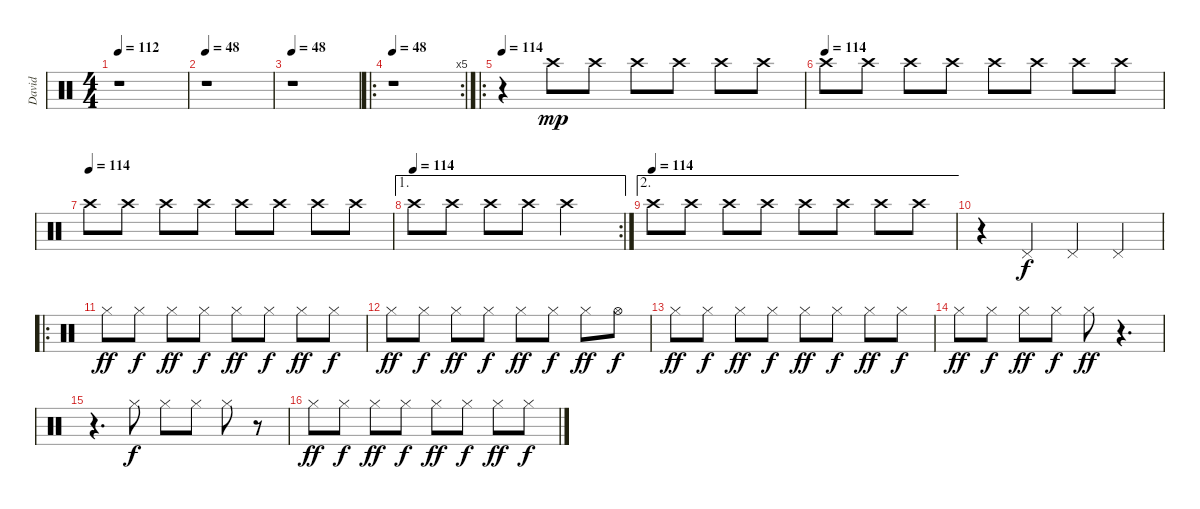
\track ("David" "David") {instrument percussion}
\staff {score}
\articulation defaults
\ts (4 4)
\tempo 112
\tempo 48
\tempo 112
\clef neutral
\ks c
r.1{dy mp} |
\tempo 48
r.1 |
\tempo 48
r.1 |
\ro
\rc 5
\tempo 48
r.1 |
\ro
\tempo 114
r.4 "Crash high (hit)".8 "Crash high (hit)".8 "Crash high (hit)".8 "Crash high (hit)".8 "Crash high (hit)".8 "Crash high (hit)".8 |
\tempo (114)
"Crash high (hit)".8 "Crash high (hit)".8 "Crash high (hit)".8 "Crash high (hit)".8 "Crash high (hit)".8 "Crash high (hit)".8 "Crash high (hit)".8 "Crash high (hit)".8 |
\tempo (114)
"Crash high (hit)".8 "Crash high (hit)".8 "Crash high (hit)".8 "Crash high (hit)".8 "Crash high (hit)".8 "Crash high (hit)".8 "Crash high (hit)".8 "Crash high (hit)".8 |
\ae 1
\rc 2
\tempo (114)
"Crash high (hit)".8 "Crash high (hit)".8 "Crash high (hit)".8 "Crash high (hit)".8 "Crash high (hit)".2 |
\ae 2
\tempo (114)
"Crash high (hit)".8 "Crash high (hit)".8 "Crash high (hit)".8 "Crash high (hit)".8 "Crash high (hit)".8 "Crash high (hit)".8 "Crash high (hit)".8 "Crash high (hit)".8 |
r.4 "Pedal Hi-Hat (hit)".4{dy f} "Pedal Hi-Hat (hit)".4 "Pedal Hi-Hat (hit)".4 |
\ro "Hi-Hat (closed)".8{dy ff} "Hi-Hat (closed)".8{dy f} "Hi-Hat (closed)".8{dy ff} "Hi-Hat (closed)".8{dy f} "Hi-Hat (closed)".8{dy ff} "Hi-Hat (closed)".8{dy f} "Hi-Hat (closed)".8{dy ff} "Hi-Hat (closed)".8{dy f}
|
"Hi-Hat (closed)".8{dy ff} "Hi-Hat (closed)".8{dy f} "Hi-Hat (closed)".8{dy ff} "Hi-Hat (closed)".8{dy f} "Hi-Hat (closed)".8{dy ff} "Hi-Hat (closed)".8{dy f} "Hi-Hat (closed)".8{dy ff} "Hi-Hat (open)".8{dy f} |
"Hi-Hat (closed)".8{dy ff} "Hi-Hat (closed)".8{dy f} "Hi-Hat (closed)".8{dy ff} "Hi-Hat (closed)".8{dy f} "Hi-Hat (closed)".8{dy ff} "Hi-Hat (closed)".8{dy f} "Hi-Hat (closed)".8{dy ff} "Hi-Hat (closed)".8{dy f} |
"Hi-Hat (closed)".8{dy ff} "Hi-Hat (closed)".8{dy f} "Hi-Hat (closed)".8{dy ff} "Hi-Hat (closed)".8{dy f} "Hi-Hat (closed)".8{dy ff} r.4{d} |
r.4{d} "Hi-Hat (closed)".8{dy f} "Hi-Hat (closed)".8 "Hi-Hat (closed)".8 "Hi-Hat (closed)".8 r.8 |
"Hi-Hat (closed)".8{dy ff} "Hi-Hat (closed)".8{dy f} "Hi-Hat (closed)".8{dy ff} "Hi-Hat (closed)".8{dy f} "Hi-Hat (closed)".8{dy ff} "Hi-Hat (closed)".8{dy f} "Hi-Hat (closed)".8{dy ff} "Hi-Hat (closed)".8{dy f}
